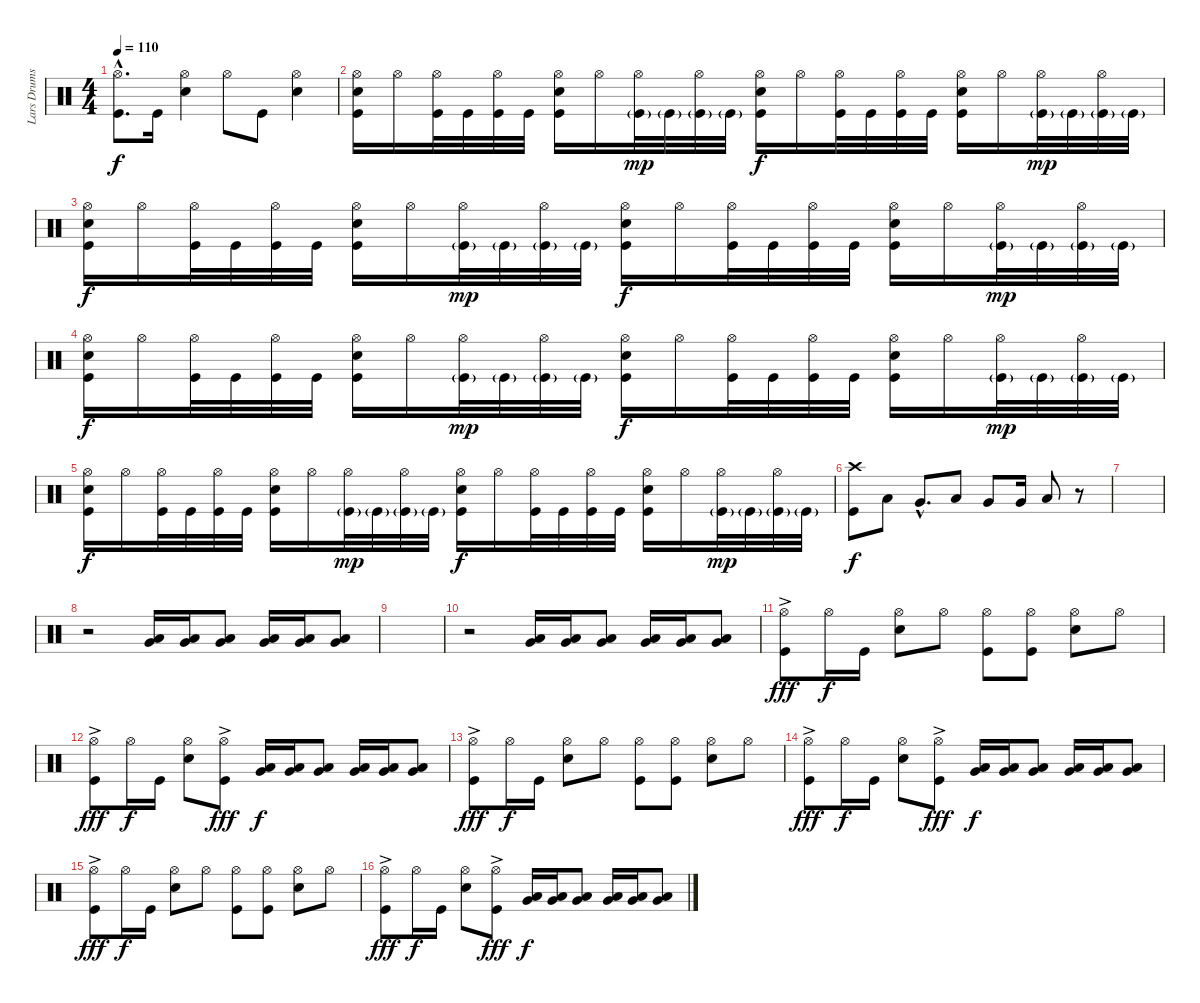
\track ("Lars Drums" "Lars Drums") {instrument percussion}
\staff {score}
\articulation defaults
\ts (4 4)
\tempo 110
\clef neutral
\ks c
("Hi-Hat (open)"{hac} "Kick (hit)"{hac}).8{d dy f} "Kick (hit)".16 ("Hi-Hat (open)" "Electric Snare (hit)").4 "Hi-Hat (open)".8 "Kick (hit)".8 ("Hi-Hat (open)" "Electric Snare (hit)").4 |
("Hi-Hat (open)" "Electric Snare (hit)" "Kick (hit)").16 "Hi-Hat (open)".16 ("Hi-Hat (open)" "Kick (hit)").32 "Kick (hit)".32 ("Hi-Hat (open)" "Kick (hit)").32 "Kick (hit)".32 ("Hi-Hat (open)" "Electric Snare (hit)" "Kick (hit)").16 "Hi-Hat (open)".16 ("Hi-Hat (open)" "Kick (hit)"{g}).32{dy mp} "Kick (hit)"{g}.32 ("Hi-Hat (open)" "Kick (hit)"{g}).32 "Kick (hit)"{g}.32 ("Hi-Hat (open)" "Electric Snare (hit)" "Kick (hit)").16{dy f} "Hi-Hat (open)".16 ("Hi-Hat (open)" "Kick (hit)").32 "Kick (hit)".32 ("Hi-Hat (open)" "Kick (hit)").32 "Kick (hit)".32 ("Hi-Hat (open)" "Electric Snare (hit)" "Kick (hit)").16 "Hi-Hat (open)".16 ("Hi-Hat (open)" "Kick (hit)"{g}).32{dy mp} "Kick (hit)"{g}.32 ("Hi-Hat (open)" "Kick (hit)"{g}).32 "Kick (hit)"{g}.32 |
("Hi-Hat (open)" "Electric Snare (hit)" "Kick (hit)").16{dy f} "Hi-Hat (open)".16 ("Hi-Hat (open)" "Kick (hit)").32 "Kick (hit)".32 ("Hi-Hat (open)" "Kick (hit)").32 "Kick (hit)".32 ("Hi-Hat (open)" "Electric Snare (hit)" "Kick (hit)").16 "Hi-Hat (open)".16 ("Hi-Hat (open)" "Kick (hit)"{g}).32{dy mp} "Kick (hit)"{g}.32 ("Hi-Hat (open)" "Kick (hit)"{g}).32 "Kick (hit)"{g}.32 ("Hi-Hat (open)" "Electric Snare (hit)" "Kick (hit)").16{dy f} "Hi-Hat (open)".16 ("Hi-Hat (open)" "Kick (hit)").32 "Kick (hit)".32 ("Hi-Hat (open)" "Kick (hit)").32 "Kick (hit)".32 ("Hi-Hat (open)" "Electric Snare (hit)" "Kick (hit)").16 "Hi-Hat (open)".16 ("Hi-Hat (open)" "Kick (hit)"{g}).32{dy mp} "Kick (hit)"{g}.32 ("Hi-Hat (open)" "Kick (hit)"{g}).32 "Kick (hit)"{g}.32 |
("Hi-Hat (open)" "Electric Snare (hit)" "Kick (hit)").16{dy f} "Hi-Hat (open)".16 ("Hi-Hat (open)" "Kick (hit)").32 "Kick (hit)".32 ("Hi-Hat (open)" "Kick (hit)").32 "Kick (hit)".32 ("Hi-Hat (open)" "Electric Snare (hit)" "Kick (hit)").16 "Hi-Hat (open)".16 ("Hi-Hat (open)" "Kick (hit)"{g}).32{dy mp} "Kick (hit)"{g}.32 ("Hi-Hat (open)" "Kick (hit)"{g}).32 "Kick (hit)"{g}.32 ("Hi-Hat (open)" "Electric Snare (hit)" "Kick (hit)").16{dy f} "Hi-Hat (open)".16 ("Hi-Hat (open)" "Kick (hit)").32 "Kick (hit)".32 ("Hi-Hat (open)" "Kick (hit)").32 "Kick (hit)".32 ("Hi-Hat (open)" "Electric Snare (hit)" "Kick (hit)").16 "Hi-Hat (open)".16 ("Hi-Hat (open)" "Kick (hit)"{g}).32{dy mp} "Kick (hit)"{g}.32 ("Hi-Hat (open)" "Kick (hit)"{g}).32 "Kick (hit)"{g}.32 |
("Hi-Hat (open)" "Electric Snare (hit)" "Kick (hit)").16{dy f} "Hi-Hat (open)".16 ("Hi-Hat (open)" "Kick (hit)").32 "Kick (hit)".32 ("Hi-Hat (open)" "Kick (hit)").32 "Kick (hit)".32 ("Hi-Hat (open)" "Electric Snare (hit)" "Kick (hit)").16 "Hi-Hat (open)".16 ("Hi-Hat (open)" "Kick (hit)"{g}).32{dy mp} "Kick (hit)"{g}.32 ("Hi-Hat (open)" "Kick (hit)"{g}).32 "Kick (hit)"{g}.32 ("Hi-Hat (open)" "Electric Snare (hit)" "Kick (hit)").16{dy f} "Hi-Hat (open)".16 ("Hi-Hat (open)" "Kick (hit)").32 "Kick (hit)".32 ("Hi-Hat (open)" "Kick (hit)").32 "Kick (hit)".32 ("Hi-Hat (open)" "Electric Snare (hit)" "Kick (hit)").16 "Hi-Hat (open)".16 ("Hi-Hat (open)" "Kick (hit)"{g}).32{dy mp} "Kick (hit)"{g}.32 ("Hi-Hat (open)" "Kick (hit)"{g}).32 "Kick (hit)"{g}.32 |
("Crash high (hit)" "Kick (hit)").8{dy f} "Low Floor Tom (hit)".8 "Very Low Tom (hit)"{hac}.8{d} "Low Floor Tom (hit)".8 "Very Low Tom (hit)".8 "Very Low Tom (hit)".16 "Low Floor Tom (hit)".8 r.8 |
|
r.2 ("Low Floor Tom (hit)" "Very Low Tom (hit)").16 ("Low Floor Tom (hit)" "Very Low Tom (hit)").16 ("Low Floor Tom (hit)" "Very Low Tom (hit)").8 ("Low Floor Tom (hit)" "Very Low Tom (hit)").16 ("Low Floor Tom (hit)" "Very Low Tom (hit)").16 ("Low Floor Tom (hit)" "Very Low Tom (hit)").8 |
|
r.2 ("Low Floor Tom (hit)" "Very Low Tom (hit)").16 ("Low Floor Tom (hit)" "Very Low Tom (hit)").16 ("Low Floor Tom (hit)" "Very Low Tom (hit)").8 ("Low Floor Tom (hit)" "Very Low Tom (hit)").16 ("Low Floor Tom (hit)" "Very Low Tom (hit)").16 ("Low Floor Tom (hit)" "Very Low Tom (hit)").8 |
("Hi-Hat (open)" "Kick (hit)"{ac}).8{dy fff} "Hi-Hat (open)".16{dy f} "Kick (hit)".16 ("Hi-Hat (open)" "Electric Snare (hit)").8 "Hi-Hat (open)".8 ("Hi-Hat (open)" "Kick (hit)").8 ("Hi-Hat (open)" "Kick (hit)").8 ("Hi-Hat (open)" "Electric Snare (hit)").8 "Hi-Hat (open)".8 |
("Hi-Hat (open)" "Kick (hit)"{ac}).8{dy fff} "Hi-Hat (open)".16{dy f} "Kick (hit)".16 ("Hi-Hat (open)" "Electric Snare (hit)").8 ("Hi-Hat (open)" "Kick (hit)"{ac}).8{dy fff} ("Low Floor Tom (hit)" "Very Low Tom (hit)").16{dy f} ("Low Floor Tom (hit)" "Very Low Tom (hit)").16 ("Low Floor Tom (hit)" "Very Low Tom (hit)").8 ("Low Floor Tom (hit)" "Very Low Tom (hit)").16 ("Low Floor Tom (hit)" "Very Low Tom (hit)").16 ("Low Floor Tom (hit)" "Very Low Tom (hit)").8 |
("Hi-Hat (open)" "Kick (hit)"{ac}).8{dy fff} "Hi-Hat (open)".16{dy f} "Kick (hit)".16 ("Hi-Hat (open)" "Electric Snare (hit)").8 "Hi-Hat (open)".8 ("Hi-Hat (open)" "Kick (hit)").8 ("Hi-Hat (open)" "Kick (hit)").8 ("Hi-Hat (open)" "Electric Snare (hit)").8 "Hi-Hat (open)".8 |
("Hi-Hat (open)" "Kick (hit)"{ac}).8{dy fff} "Hi-Hat (open)".16{dy f} "Kick (hit)".16 ("Hi-Hat (open)" "Electric Snare (hit)").8 ("Hi-Hat (open)" "Kick (hit)"{ac}).8{dy fff} ("Low Floor Tom (hit)" "Very Low Tom (hit)").16{dy f} ("Low Floor Tom (hit)" "Very Low Tom (hit)").16 ("Low Floor Tom (hit)" "Very Low Tom (hit)").8 ("Low Floor Tom (hit)" "Very Low Tom (hit)").16 ("Low Floor Tom (hit)" "Very Low Tom (hit)").16 ("Low Floor Tom (hit)" "Very Low Tom (hit)").8 |
("Hi-Hat (open)" "Kick (hit)"{ac}).8{dy fff} "Hi-Hat (open)".16{dy f} "Kick (hit)".16 ("Hi-Hat (open)" "Electric Snare (hit)").8 "Hi-Hat (open)".8 ("Hi-Hat (open)" "Kick (hit)").8 ("Hi-Hat (open)" "Kick (hit)").8 ("Hi-Hat (open)" "Electric Snare (hit)").8 "Hi-Hat (open)".8 |
("Hi-Hat (open)" "Kick (hit)"{ac}).8{dy fff} "Hi-Hat (open)".16{dy f} "Kick (hit)".16 ("Hi-Hat (open)" "Electric Snare (hit)").8 ("Hi-Hat (open)" "Kick (hit)"{ac}).8{dy fff} ("Low Floor Tom (hit)" "Very Low Tom (hit)").16{dy f} ("Low Floor Tom (hit)" "Very Low Tom (hit)").16 ("Low Floor Tom (hit)" "Very Low Tom (hit)").8 ("Low Floor Tom (hit)" "Very Low Tom (hit)").16 ("Low Floor Tom (hit)" "Very Low Tom (hit)").16 ("Low Floor Tom (hit)" "Very Low Tom (hit)").8
